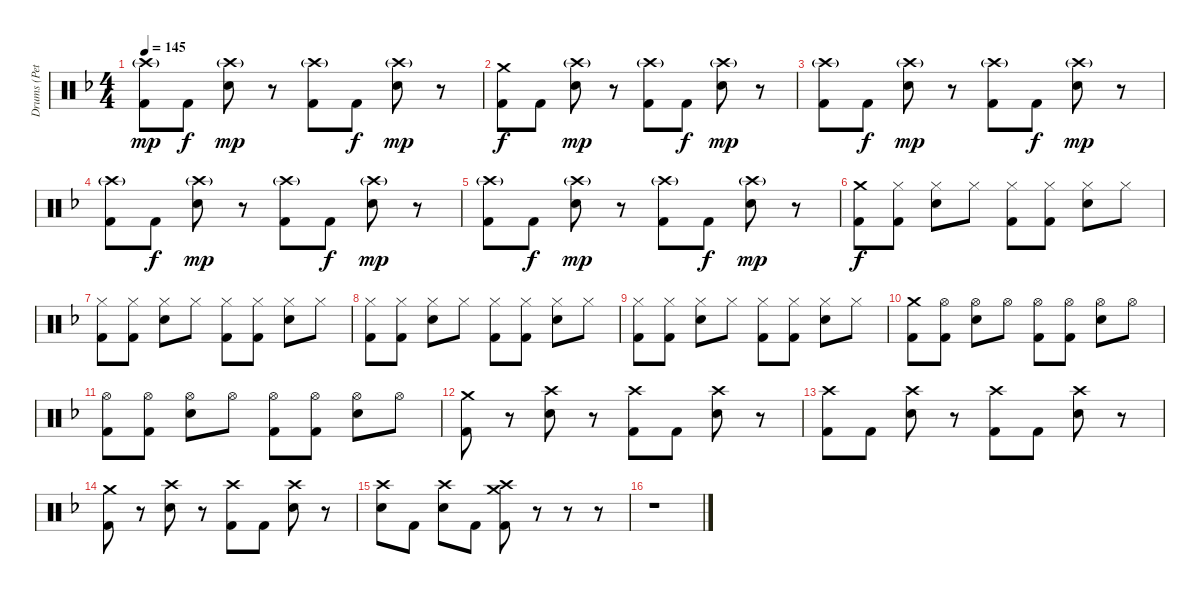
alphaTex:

\track ("Drums (Pete)" "Drums (Pet") {instrument percussion}
\staff {score}
\articulation defaults
\ts (4 4)
\tempo 145
\clef neutral
\ks f
("Crash high (hit)"{g} "Kick (hit) 2").8{dy mp} "Kick (hit) 2".8{dy f} ("Crash high (hit)"{g} "Snare (hit) 2").8{dy mp} r.8 ("Crash high (hit)"{g} "Kick (hit) 2").8 "Kick (hit) 2".8{dy f} ("Crash high (hit)"{g} "Snare (hit) 2").8{dy mp} r.8 |
("Crash medium (hit)" "Kick (hit) 2").8{dy f} "Kick (hit) 2".8 ("Crash high (hit)"{g} "Snare (hit) 2").8{dy mp} r.8 ("Crash high (hit)"{g} "Kick (hit) 2").8 "Kick (hit) 2".8{dy f} ("Crash high (hit)"{g} "Snare (hit) 2").8{dy mp} r.8 |
("Crash high (hit)"{g} "Kick (hit) 2").8 "Kick (hit) 2".8{dy f} ("Crash high (hit)"{g} "Snare (hit) 2").8{dy mp} r.8 ("Crash high (hit)"{g} "Kick (hit) 2").8 "Kick (hit) 2".8{dy f} ("Crash high (hit)"{g} "Snare (hit) 2").8{dy mp} r.8 |
("Crash high (hit)"{g} "Kick (hit) 2").8 "Kick (hit) 2".8{dy f} ("Crash high (hit)"{g} "Snare (hit) 2").8{dy mp} r.8 ("Crash high (hit)"{g} "Kick (hit) 2").8 "Kick (hit) 2".8{dy f} ("Crash high (hit)"{g} "Snare (hit) 2").8{dy mp} r.8 |
("Crash high (hit)"{g} "Kick (hit) 2").8 "Kick (hit) 2".8{dy f} ("Crash high (hit)"{g} "Snare (hit) 2").8{dy mp} r.8 ("Crash high (hit)"{g} "Kick (hit) 2").8 "Kick (hit) 2".8{dy f} ("Crash high (hit)"{g} "Snare (hit) 2").8{dy mp} r.8 |
("Crash medium (hit)" "Kick (hit) 2").8{dy f} ("Hi-Hat (closed)" "Kick (hit) 2").8 ("Hi-Hat (closed)" "Snare (hit) 2").8 "Hi-Hat (closed)".8 ("Hi-Hat (closed)" "Kick (hit) 2").8 ("Hi-Hat (closed)" "Kick (hit) 2").8 ("Hi-Hat (closed)" "Snare (hit) 2").8 "Hi-Hat (closed)".8 |
("Hi-Hat (closed)" "Kick (hit) 2").8 ("Hi-Hat (closed)" "Kick (hit) 2").8 ("Hi-Hat (closed)" "Snare (hit) 2").8 "Hi-Hat (closed)".8 ("Hi-Hat (closed)" "Kick (hit) 2").8 ("Hi-Hat (closed)" "Kick (hit) 2").8 ("Hi-Hat (closed)" "Snare (hit) 2").8 "Hi-Hat (closed)".8 |
("Hi-Hat (closed)" "Kick (hit) 2").8 ("Hi-Hat (closed)" "Kick (hit) 2").8 ("Hi-Hat (closed)" "Snare (hit) 2").8 "Hi-Hat (closed)".8 ("Hi-Hat (closed)" "Kick (hit) 2").8 ("Hi-Hat (closed)" "Kick (hit) 2").8 ("Hi-Hat (closed)" "Snare (hit) 2").8 "Hi-Hat (closed)".8 |
("Hi-Hat (closed)" "Kick (hit) 2").8 ("Hi-Hat (closed)" "Kick (hit) 2").8 ("Hi-Hat (closed)" "Snare (hit) 2").8 "Hi-Hat (closed)".8 ("Hi-Hat (closed)" "Kick (hit) 2").8 ("Hi-Hat (closed)" "Kick (hit) 2").8 ("Hi-Hat (closed)" "Snare (hit) 2").8 "Hi-Hat (closed)".8 |
("Crash medium (hit)" "Kick (hit) 2").8 ("Hi-Hat (open)" "Kick (hit) 2").8 ("Hi-Hat (open)" "Snare (hit) 2").8 "Hi-Hat (open)".8 ("Hi-Hat (open)" "Kick (hit) 2").8 ("Hi-Hat (open)" "Kick (hit) 2").8 ("Hi-Hat (open)" "Snare (hit) 2").8 "Hi-Hat (open)".8 |
("Hi-Hat (open)" "Kick (hit) 2").8 ("Hi-Hat (open)" "Kick (hit) 2").8 ("Hi-Hat (open)" "Snare (hit) 2").8 "Hi-Hat (open)".8 ("Hi-Hat (open)" "Kick (hit) 2").8 ("Hi-Hat (open)" "Kick (hit) 2").8 ("Hi-Hat (open)" "Snare (hit) 2").8 "Hi-Hat (open)".8 |
("Crash medium (hit)" "Kick (hit) 2").8 r.8 ("Crash high (hit)" "Snare (hit) 2").8 r.8 ("Crash high (hit)" "Kick (hit) 2").8 "Kick (hit) 2".8 ("Crash high (hit)" "Snare (hit) 2").8 r.8 |
("Crash high (hit)" "Kick (hit) 2").8 "Kick (hit) 2".8 ("Crash high (hit)" "Snare (hit) 2").8 r.8 ("Crash high (hit)" "Kick (hit) 2").8 "Kick (hit) 2".8 ("Crash high (hit)" "Snare (hit) 2").8 r.8 |
("Crash medium (hit)" "Kick (hit) 2").8 r.8 ("Crash high (hit)" "Snare (hit) 2").8 r.8 ("Crash high (hit)" "Kick (hit) 2").8 "Kick (hit) 2".8 ("Crash high (hit)" "Snare (hit) 2").8 r.8 |
("Crash high (hit)" "Snare (hit) 2").8 "Kick (hit) 2".8 ("Crash high (hit)" "Snare (hit) 2").8 "Kick (hit) 2".8 ("Crash high (hit)" "Crash medium (hit)" "Kick (hit) 2").8 r.8 r.8 r.8 |
r.1
